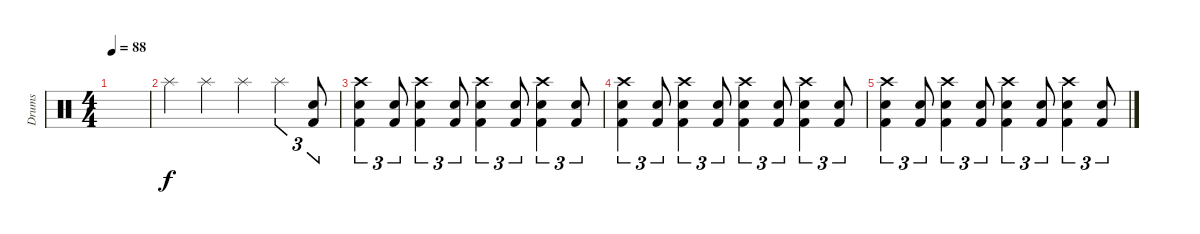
\track ("Drums" "Drums") {instrument percussion}
\staff {score}
\articulation defaults
\ts (4 4)
\tempo 88
\clef neutral
\ks c
|
"Splash (hit)".4 "Splash (hit)".4 "Splash (hit)".4 "Splash (hit)".4{tu (3 2)} ("Snare (hit) 2" "Kick (hit) 2").8{tu (3 2)} |
("Crash high (hit)" "Snare (hit) 2" "Kick (hit) 2").4{tu (3 2)} ("Snare (hit) 2" "Kick (hit) 2").8{tu (3 2)} ("Crash high (hit)" "Snare (hit) 2" "Kick (hit) 2").4{tu (3 2)} ("Snare (hit) 2" "Kick (hit) 2").8{tu (3 2)} ("Crash high (hit)" "Snare (hit) 2" "Kick (hit) 2").4{tu (3 2)} ("Snare (hit) 2" "Kick (hit) 2").8{tu (3 2)} ("Crash high (hit)" "Snare (hit) 2" "Kick (hit) 2").4{tu (3 2)} ("Snare (hit) 2" "Kick (hit) 2").8{tu (3 2)} |
("Crash high (hit)" "Snare (hit) 2" "Kick (hit) 2").4{tu (3 2)} ("Snare (hit) 2" "Kick (hit) 2").8{tu (3 2)} ("Crash high (hit)" "Snare (hit) 2" "Kick (hit) 2").4{tu (3 2)} ("Snare (hit) 2" "Kick (hit) 2").8{tu (3 2)} ("Crash high (hit)" "Snare (hit) 2" "Kick (hit) 2").4{tu (3 2)} ("Snare (hit) 2" "Kick (hit) 2").8{tu (3 2)} ("Crash high (hit)" "Snare (hit) 2" "Kick (hit) 2").4{tu (3 2)} ("Snare (hit) 2" "Kick (hit) 2").8{tu (3 2)} |
("Crash high (hit)" "Snare (hit) 2" "Kick (hit) 2").4{tu (3 2)} ("Snare (hit) 2" "Kick (hit) 2").8{tu (3 2)} ("Crash high (hit)" "Snare (hit) 2" "Kick (hit) 2").4{tu (3 2)} ("Snare (hit) 2" "Kick (hit) 2").8{tu (3 2)} ("Crash high (hit)" "Snare (hit) 2" "Kick (hit) 2").4{tu (3 2)} ("Snare (hit) 2" "Kick (hit) 2").8{tu (3 2)} ("Crash high (hit)" "Snare (hit) 2" "Kick (hit) 2").4{tu (3 2)} ("Snare (hit) 2" "Kick (hit) 2").8{tu (3 2)}
